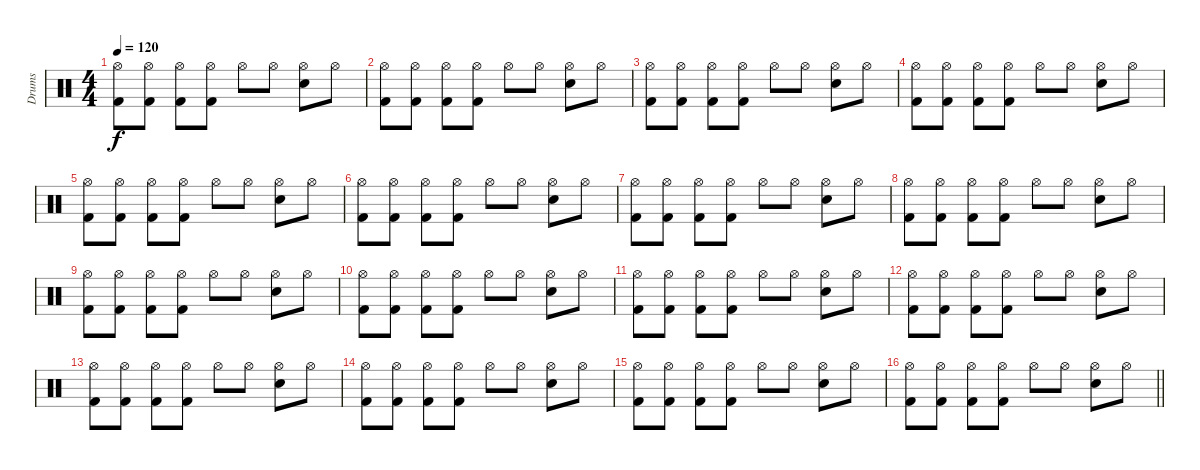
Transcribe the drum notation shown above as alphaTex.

\track ("Drums" "Drums") {instrument percussion}
\staff {score}
\articulation defaults
\ts (4 4)
\tempo 120
\clef neutral
\ks c
("Hi-Hat (open)" "Kick (hit) 2").8{dy f} ("Hi-Hat (open)" "Kick (hit) 2").8 ("Hi-Hat (open)" "Kick (hit) 2").8 ("Hi-Hat (open)" "Kick (hit) 2").8 "Hi-Hat (open)".8 "Hi-Hat (open)".8 ("Hi-Hat (open)" "Snare (hit) 2").8 "Hi-Hat (open)".8 |
("Hi-Hat (open)" "Kick (hit) 2").8 ("Hi-Hat (open)" "Kick (hit) 2").8 ("Hi-Hat (open)" "Kick (hit) 2").8 ("Hi-Hat (open)" "Kick (hit) 2").8 "Hi-Hat (open)".8 "Hi-Hat (open)".8 ("Hi-Hat (open)" "Snare (hit) 2").8 "Hi-Hat (open)".8 |
("Hi-Hat (open)" "Kick (hit) 2").8 ("Hi-Hat (open)" "Kick (hit) 2").8 ("Hi-Hat (open)" "Kick (hit) 2").8 ("Hi-Hat (open)" "Kick (hit) 2").8 "Hi-Hat (open)".8 "Hi-Hat (open)".8 ("Hi-Hat (open)" "Snare (hit) 2").8 "Hi-Hat (open)".8 |
("Hi-Hat (open)" "Kick (hit) 2").8 ("Hi-Hat (open)" "Kick (hit) 2").8 ("Hi-Hat (open)" "Kick (hit) 2").8 ("Hi-Hat (open)" "Kick (hit) 2").8 "Hi-Hat (open)".8 "Hi-Hat (open)".8 ("Hi-Hat (open)" "Snare (hit) 2").8 "Hi-Hat (open)".8 |
("Hi-Hat (open)" "Kick (hit) 2").8 ("Hi-Hat (open)" "Kick (hit) 2").8 ("Hi-Hat (open)" "Kick (hit) 2").8 ("Hi-Hat (open)" "Kick (hit) 2").8 "Hi-Hat (open)".8 "Hi-Hat (open)".8 ("Hi-Hat (open)" "Snare (hit) 2").8 "Hi-Hat (open)".8 |
("Hi-Hat (open)" "Kick (hit) 2").8 ("Hi-Hat (open)" "Kick (hit) 2").8 ("Hi-Hat (open)" "Kick (hit) 2").8 ("Hi-Hat (open)" "Kick (hit) 2").8 "Hi-Hat (open)".8 "Hi-Hat (open)".8 ("Hi-Hat (open)" "Snare (hit) 2").8 "Hi-Hat (open)".8 |
("Hi-Hat (open)" "Kick (hit) 2").8 ("Hi-Hat (open)" "Kick (hit) 2").8 ("Hi-Hat (open)" "Kick (hit) 2").8 ("Hi-Hat (open)" "Kick (hit) 2").8 "Hi-Hat (open)".8 "Hi-Hat (open)".8 ("Hi-Hat (open)" "Snare (hit) 2").8 "Hi-Hat (open)".8 |
("Hi-Hat (open)" "Kick (hit) 2").8 ("Hi-Hat (open)" "Kick (hit) 2").8 ("Hi-Hat (open)" "Kick (hit) 2").8 ("Hi-Hat (open)" "Kick (hit) 2").8 "Hi-Hat (open)".8 "Hi-Hat (open)".8 ("Hi-Hat (open)" "Snare (hit) 2").8 "Hi-Hat (open)".8 |
("Hi-Hat (open)" "Kick (hit) 2").8 ("Hi-Hat (open)" "Kick (hit) 2").8 ("Hi-Hat (open)" "Kick (hit) 2").8 ("Hi-Hat (open)" "Kick (hit) 2").8 "Hi-Hat (open)".8 "Hi-Hat (open)".8 ("Hi-Hat (open)" "Snare (hit) 2").8 "Hi-Hat (open)".8 |
("Hi-Hat (open)" "Kick (hit) 2").8 ("Hi-Hat (open)" "Kick (hit) 2").8 ("Hi-Hat (open)" "Kick (hit) 2").8 ("Hi-Hat (open)" "Kick (hit) 2").8 "Hi-Hat (open)".8 "Hi-Hat (open)".8 ("Hi-Hat (open)" "Snare (hit) 2").8 "Hi-Hat (open)".8 |
("Hi-Hat (open)" "Kick (hit) 2").8 ("Hi-Hat (open)" "Kick (hit) 2").8 ("Hi-Hat (open)" "Kick (hit) 2").8 ("Hi-Hat (open)" "Kick (hit) 2").8 "Hi-Hat (open)".8 "Hi-Hat (open)".8 ("Hi-Hat (open)" "Snare (hit) 2").8 "Hi-Hat (open)".8 |
("Hi-Hat (open)" "Kick (hit) 2").8 ("Hi-Hat (open)" "Kick (hit) 2").8 ("Hi-Hat (open)" "Kick (hit) 2").8 ("Hi-Hat (open)" "Kick (hit) 2").8 "Hi-Hat (open)".8 "Hi-Hat (open)".8 ("Hi-Hat (open)" "Snare (hit) 2").8 "Hi-Hat (open)".8 |
("Hi-Hat (open)" "Kick (hit) 2").8 ("Hi-Hat (open)" "Kick (hit) 2").8 ("Hi-Hat (open)" "Kick (hit) 2").8 ("Hi-Hat (open)" "Kick (hit) 2").8 "Hi-Hat (open)".8 "Hi-Hat (open)".8 ("Hi-Hat (open)" "Snare (hit) 2").8 "Hi-Hat (open)".8 |
("Hi-Hat (open)" "Kick (hit) 2").8 ("Hi-Hat (open)" "Kick (hit) 2").8 ("Hi-Hat (open)" "Kick (hit) 2").8 ("Hi-Hat (open)" "Kick (hit) 2").8 "Hi-Hat (open)".8 "Hi-Hat (open)".8 ("Hi-Hat (open)" "Snare (hit) 2").8 "Hi-Hat (open)".8 |
("Hi-Hat (open)" "Kick (hit) 2").8 ("Hi-Hat (open)" "Kick (hit) 2").8 ("Hi-Hat (open)" "Kick (hit) 2").8 ("Hi-Hat (open)" "Kick (hit) 2").8 "Hi-Hat (open)".8 "Hi-Hat (open)".8 ("Hi-Hat (open)" "Snare (hit) 2").8 "Hi-Hat (open)".8 |
\barLineRight lightlight
("Hi-Hat (open)" "Kick (hit) 2").8 ("Hi-Hat (open)" "Kick (hit) 2").8 ("Hi-Hat (open)" "Kick (hit) 2").8 ("Hi-Hat (open)" "Kick (hit) 2").8 "Hi-Hat (open)".8 "Hi-Hat (open)".8 ("Hi-Hat (open)" "Snare (hit) 2").8 "Hi-Hat (open)".8
